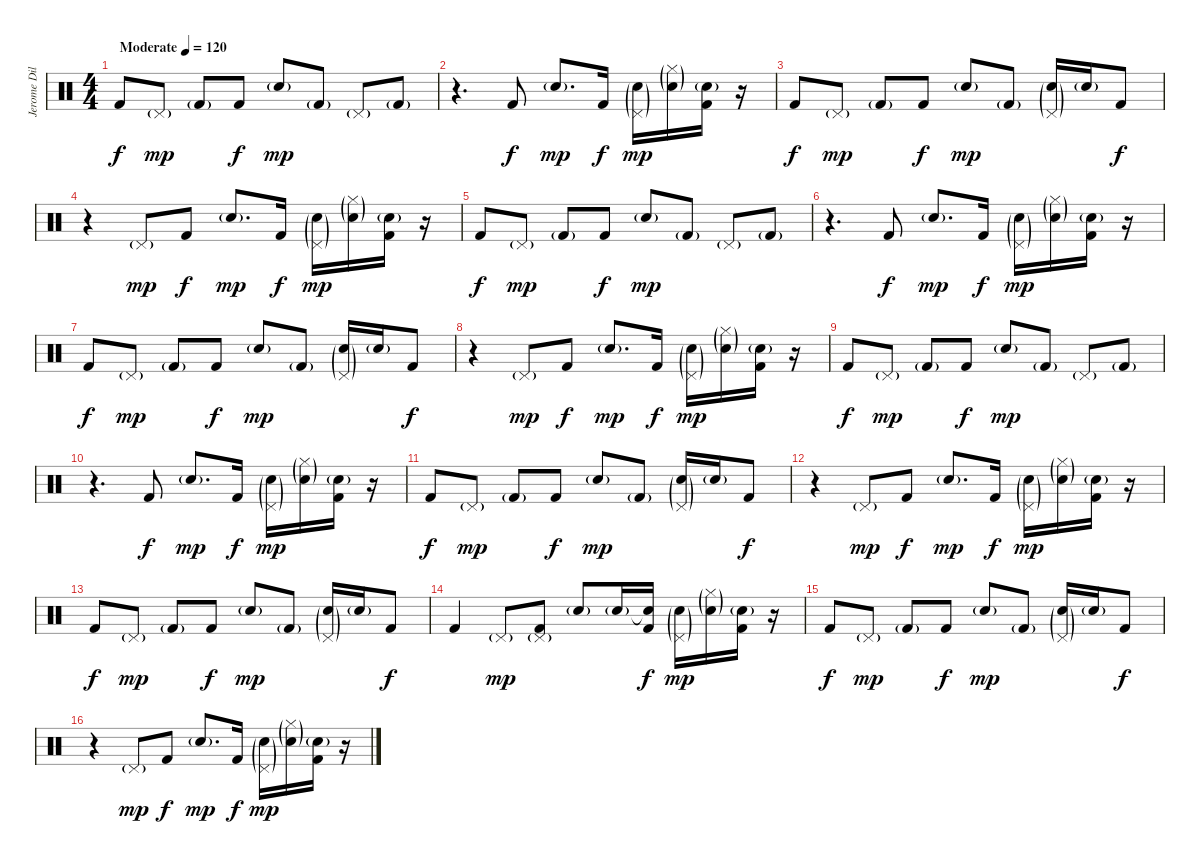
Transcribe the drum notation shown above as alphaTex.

\track ("Jerome Dillon" "Jerome Dil") {instrument percussion}
\staff {score}
\articulation defaults
\ts (4 4)
\tempo (120 "Moderate")
\clef neutral
\ks c "Kick (hit) 2".8{dy f} "Pedal Hi-Hat (hit)"{g}.8{dy mp} "Kick (hit) 2"{g}.8 "Kick (hit) 2".8{dy f} "Electric Snare (hit)"{g}.8{dy mp} "Kick (hit) 2"{g}.8 "Pedal Hi-Hat (hit)"{g}.8 "Kick (hit) 2"{g}.8
|
r.4{d} "Kick (hit) 2".8{dy f} "Electric Snare (hit)"{g}.8{d dy mp} "Kick (hit) 2".16{dy f} ("Pedal Hi-Hat (hit)"{g} "Electric Snare (hit)"{g}).16{dy mp} ("Hi-Hat (closed)"{g} "Electric Snare (hit)"{g}).16 ("Electric Snare (hit)"{g} "Kick (hit) 2").16 r.16 |
"Kick (hit) 2".8{dy f} "Pedal Hi-Hat (hit)"{g}.8{dy mp} "Kick (hit) 2"{g}.8 "Kick (hit) 2".8{dy f} "Electric Snare (hit)"{g}.8{dy mp} "Kick (hit) 2"{g}.8 ("Pedal Hi-Hat (hit)"{g} "Electric Snare (hit)"{g}).16 "Electric Snare (hit)"{g}.16 "Kick (hit) 2".8{dy f} |
r.4 "Pedal Hi-Hat (hit)"{g}.8{dy mp} "Kick (hit) 2".8{dy f} "Electric Snare (hit)"{g}.8{d dy mp} "Kick (hit) 2".16{dy f} ("Pedal Hi-Hat (hit)"{g} "Electric Snare (hit)"{g}).16{dy mp} ("Hi-Hat (closed)"{g} "Electric Snare (hit)"{g}).16 ("Electric Snare (hit)"{g} "Kick (hit) 2").16 r.16 |
"Kick (hit) 2".8{dy f} "Pedal Hi-Hat (hit)"{g}.8{dy mp} "Kick (hit) 2"{g}.8 "Kick (hit) 2".8{dy f} "Electric Snare (hit)"{g}.8{dy mp} "Kick (hit) 2"{g}.8 "Pedal Hi-Hat (hit)"{g}.8 "Kick (hit) 2"{g}.8 |
r.4{d} "Kick (hit) 2".8{dy f} "Electric Snare (hit)"{g}.8{d dy mp} "Kick (hit) 2".16{dy f} ("Pedal Hi-Hat (hit)"{g} "Electric Snare (hit)"{g}).16{dy mp} ("Hi-Hat (closed)"{g} "Electric Snare (hit)"{g}).16 ("Electric Snare (hit)"{g} "Kick (hit) 2").16 r.16 |
"Kick (hit) 2".8{dy f} "Pedal Hi-Hat (hit)"{g}.8{dy mp} "Kick (hit) 2"{g}.8 "Kick (hit) 2".8{dy f} "Electric Snare (hit)"{g}.8{dy mp} "Kick (hit) 2"{g}.8 ("Pedal Hi-Hat (hit)"{g} "Electric Snare (hit)"{g}).16 "Electric Snare (hit)"{g}.16 "Kick (hit) 2".8{dy f} |
r.4 "Pedal Hi-Hat (hit)"{g}.8{dy mp} "Kick (hit) 2".8{dy f} "Electric Snare (hit)"{g}.8{d dy mp} "Kick (hit) 2".16{dy f} ("Pedal Hi-Hat (hit)"{g} "Electric Snare (hit)"{g}).16{dy mp} ("Hi-Hat (closed)"{g} "Electric Snare (hit)"{g}).16 ("Electric Snare (hit)"{g} "Kick (hit) 2").16 r.16 |
"Kick (hit) 2".8{dy f} "Pedal Hi-Hat (hit)"{g}.8{dy mp} "Kick (hit) 2"{g}.8 "Kick (hit) 2".8{dy f} "Electric Snare (hit)"{g}.8{dy mp} "Kick (hit) 2"{g}.8 "Pedal Hi-Hat (hit)"{g}.8 "Kick (hit) 2"{g}.8 |
r.4{d} "Kick (hit) 2".8{dy f} "Electric Snare (hit)"{g}.8{d dy mp} "Kick (hit) 2".16{dy f} ("Pedal Hi-Hat (hit)"{g} "Electric Snare (hit)"{g}).16{dy mp} ("Hi-Hat (closed)"{g} "Electric Snare (hit)"{g}).16 ("Electric Snare (hit)"{g} "Kick (hit) 2").16 r.16 |
"Kick (hit) 2".8{dy f} "Pedal Hi-Hat (hit)"{g}.8{dy mp} "Kick (hit) 2"{g}.8 "Kick (hit) 2".8{dy f} "Electric Snare (hit)"{g}.8{dy mp} "Kick (hit) 2"{g}.8 ("Pedal Hi-Hat (hit)"{g} "Electric Snare (hit)"{g}).16 "Electric Snare (hit)"{g}.16 "Kick (hit) 2".8{dy f} |
r.4 "Pedal Hi-Hat (hit)"{g}.8{dy mp} "Kick (hit) 2".8{dy f} "Electric Snare (hit)"{g}.8{d dy mp} "Kick (hit) 2".16{dy f} ("Pedal Hi-Hat (hit)"{g} "Electric Snare (hit)"{g}).16{dy mp} ("Hi-Hat (closed)"{g} "Electric Snare (hit)"{g}).16 ("Electric Snare (hit)"{g} "Kick (hit) 2").16 r.16 |
"Kick (hit) 2".8{dy f} "Pedal Hi-Hat (hit)"{g}.8{dy mp} "Kick (hit) 2"{g}.8 "Kick (hit) 2".8{dy f} "Electric Snare (hit)"{g}.8{dy mp} "Kick (hit) 2"{g}.8 ("Pedal Hi-Hat (hit)"{g} "Electric Snare (hit)"{g}).16 "Electric Snare (hit)"{g}.16 "Kick (hit) 2".8{dy f} |
"Kick (hit) 2".4 "Pedal Hi-Hat (hit)"{g}.8{dy mp} ("Pedal Hi-Hat (hit)"{g} "Kick (hit) 2").8 "Electric Snare (hit)"{g}.8 "Snare (hit) 2"{g}.16 ("Snare (hit)"{t} "Kick (hit) 2").16{dy f} ("Pedal Hi-Hat (hit)"{g} "Electric Snare (hit)"{g}).16{dy mp} ("Hi-Hat (closed)"{g} "Electric Snare (hit)"{g}).16 ("Electric Snare (hit)"{g} "Kick (hit) 2").16 r.16 |
"Kick (hit) 2".8{dy f} "Pedal Hi-Hat (hit)"{g}.8{dy mp} "Kick (hit) 2"{g}.8 "Kick (hit) 2".8{dy f} "Electric Snare (hit)"{g}.8{dy mp} "Kick (hit) 2"{g}.8 ("Pedal Hi-Hat (hit)"{g} "Electric Snare (hit)"{g}).16 "Electric Snare (hit)"{g}.16 "Kick (hit) 2".8{dy f} |
r.4 "Pedal Hi-Hat (hit)"{g}.8{dy mp} "Kick (hit) 2".8{dy f} "Electric Snare (hit)"{g}.8{d dy mp} "Kick (hit) 2".16{dy f} ("Pedal Hi-Hat (hit)"{g} "Electric Snare (hit)"{g}).16{dy mp} ("Hi-Hat (closed)"{g} "Electric Snare (hit)"{g}).16 ("Electric Snare (hit)"{g} "Kick (hit) 2").16 r.16
